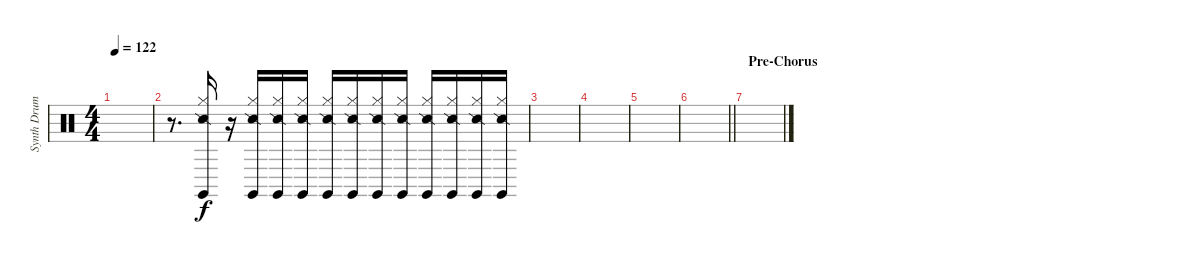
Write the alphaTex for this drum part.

\track ("Synth Drums" "Synth Drum") {instrument percussion}
\staff {score}
\articulation defaults
\ts (4 4)
\tempo 122
\clef neutral
\ks c
|
r.8{d} ("Hi-Hat (closed)" "Snare (side stick) 2" "Claves (hit)").16 r.16 ("Hi-Hat (closed)" "Snare (side stick) 2" "Claves (hit)").16 ("Hi-Hat (closed)" "Snare (side stick) 2" "Claves (hit)").16 ("Hi-Hat (closed)" "Snare (side stick) 2" "Claves (hit)").16 ("Hi-Hat (closed)" "Snare (side stick) 2" "Claves (hit)").16 ("Hi-Hat (closed)" "Snare (side stick) 2" "Claves (hit)").16 ("Hi-Hat (closed)" "Snare (side stick) 2" "Claves (hit)").16 ("Hi-Hat (closed)" "Snare (side stick) 2" "Claves (hit)").16 ("Hi-Hat (closed)" "Snare (side stick) 2" "Claves (hit)").16 ("Hi-Hat (closed)" "Snare (side stick) 2" "Claves (hit)").16 ("Hi-Hat (closed)" "Snare (side stick) 2" "Claves (hit)").16 ("Hi-Hat (closed)" "Snare (side stick) 2" "Claves (hit)").16 |
|
|
|
\barLineRight lightlight
|
\section ("" "Pre-Chorus")
